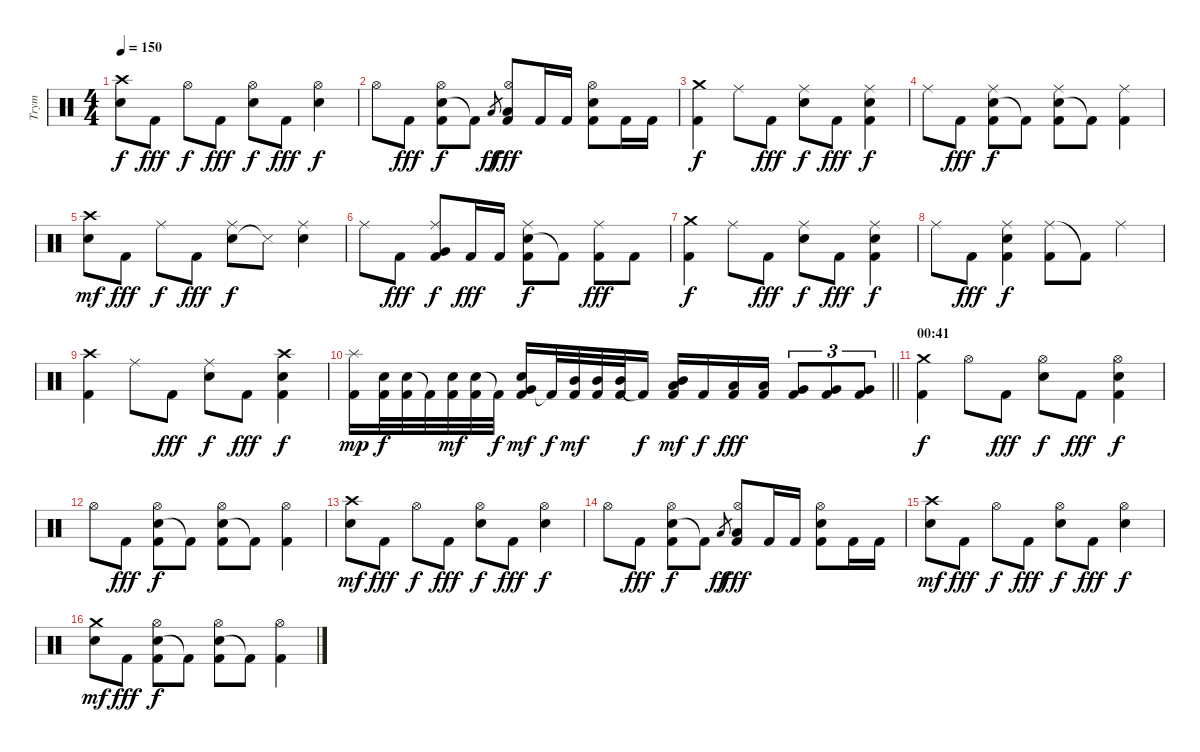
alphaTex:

\track ("Trym" "Trym") {instrument percussion}
\staff {score}
\articulation defaults
\ts (4 4)
\tempo 150
\clef neutral
\ks c
("Crash high (hit)" "Snare (hit) 2").8{dy f} "Kick (hit) 2".8{dy fff} "Hi-Hat (open)".8{dy f} "Kick (hit) 2".8{dy fff} ("Snare (hit) 2" "Hi-Hat (open)").8{dy f} "Kick (hit) 2".8{dy fff} ("Snare (hit) 2" "Hi-Hat (open)").4{dy f} |
"Hi-Hat (open)".8 "Kick (hit) 2".8{dy fff} ("Snare (hit) 2" "Hi-Hat (open)" "Kick (hit) 2").8{dy f} "Kick (hit) 2"{t}.8 "Low Tom (hit)".8{gr dy ff} ("Low Tom (hit)" "Hi-Hat (open)" "Kick (hit) 2").8{dy fff} "Kick (hit) 2".16 "Kick (hit) 2".16 ("Snare (hit) 2" "Hi-Hat (open)" "Kick (hit) 2").8 "Kick (hit) 2".16 "Kick (hit) 2".16 |
("Crash medium (hit)" "Kick (hit) 2").4{dy f} "Ride (middle)".8 "Kick (hit) 2".8{dy fff} ("Snare (hit) 2" "Ride (middle)").8{dy f} "Kick (hit) 2".8{dy fff} ("Snare (hit) 2" "Ride (middle)" "Kick (hit) 2").4{dy f} |
"Ride (middle)".8 "Kick (hit) 2".8{dy fff} ("Snare (hit) 2" "Ride (middle)" "Kick (hit) 2").8{dy f} "Kick (hit) 2"{t}.8 ("Snare (hit) 2" "Ride (middle)" "Kick (hit) 2").8 "Kick (hit) 2"{t}.8 ("Ride (middle)" "Kick (hit) 2").4 |
("Crash high (hit)" "Snare (hit) 2").8{dy mf} "Kick (hit) 2".8{dy fff} "Ride (middle)".8{dy f} "Kick (hit) 2".8{dy fff} ("Snare (hit) 2" "Ride (middle)").8{dy f} "Metronome (hit)"{t}.8 ("Snare (hit) 2" "Ride (middle)").4 |
"Ride (middle)".8 "Kick (hit) 2".8{dy fff} ("Very Low Tom (hit)" "Ride (middle)" "Kick (hit) 2").8{dy f} "Kick (hit) 2".16{dy fff} "Kick (hit) 2".16 ("Snare (hit) 2" "Ride (middle)" "Kick (hit) 2").8{dy f} "Kick (hit) 2"{t}.8 ("Ride (middle)" "Kick (hit) 2").8{dy fff} "Kick (hit) 2".8 |
("Crash medium (hit)" "Kick (hit) 2").4{dy f} "Ride (middle)".8 "Kick (hit) 2".8{dy fff} ("Snare (hit) 2" "Ride (middle)").8{dy f} "Kick (hit) 2".8{dy fff} ("Snare (hit) 2" "Ride (middle)" "Kick (hit) 2").4{dy f} |
"Ride (middle)".8 "Kick (hit) 2".8{dy fff} ("Snare (hit) 2" "Ride (middle)" "Kick (hit) 2").4{dy f} ("Ride (middle)" "Kick (hit) 2").8 "Kick (hit) 2"{t}.8 "Ride (middle)".4 |
("Crash high (hit)" "Kick (hit) 2").4 "Ride (middle)".8 "Kick (hit) 2".8{dy fff} ("Snare (hit) 2" "Ride (middle)").8{dy f} "Kick (hit) 2".8{dy fff} ("Snare (hit) 2" "Crash high (hit)" "Kick (hit) 2").4{dy f} |
\barLineRight lightlight
("Splash (hit)" "Kick (hit) 2").16{dy mp} ("Snare (hit) 2" "Kick (hit) 2").32{dy f} ("Snare (hit) 2" "Kick (hit) 2").32 "Kick (hit) 2"{t}.32 ("Snare (hit) 2" "Kick (hit) 2").32{dy mf} ("Snare (hit) 2" "Kick (hit) 2").32 "Kick (hit) 2"{t}.32{dy f} ("Very Low Tom (hit)" "Snare (hit) 2" "Kick (hit) 2").16{dy mf} "Kick (hit) 2"{t}.32{dy f} ("Mid Tom (hit)" "Kick (hit) 2").32{dy mf} ("Mid Tom (hit)" "Kick (hit) 2").32 ("Mid Tom (hit)" "Kick (hit) 2").32 "Kick (hit) 2"{t}.16{dy f} ("Low Floor Tom (hit)" "Mid Tom (hit)" "Kick (hit) 2").16{dy mf} "Kick (hit) 2".16{dy f} ("Low Floor Tom (hit)" "Kick (hit) 2").16{dy fff} ("Low Floor Tom (hit)" "Kick (hit) 2").16 ("Very Low Tom (hit)" "Kick (hit) 2").8{tu (3 2)} ("Very Low Tom (hit)" "Kick (hit) 2").8{tu (3 2)} ("Very Low Tom (hit)" "Kick (hit) 2").8{tu (3 2)} |
\section ("" "00:41")
("Crash medium (hit)" "Kick (hit) 2").4{dy f} "Hi-Hat (open)".8 "Kick (hit) 2".8{dy fff} ("Snare (hit) 2" "Hi-Hat (open)").8{dy f} "Kick (hit) 2".8{dy fff} ("Snare (hit) 2" "Hi-Hat (open)" "Kick (hit) 2").4{dy f} |
"Hi-Hat (open)".8 "Kick (hit) 2".8{dy fff} ("Snare (hit) 2" "Hi-Hat (open)" "Kick (hit) 2").8{dy f} "Kick (hit) 2"{t}.8 ("Snare (hit) 2" "Hi-Hat (open)" "Kick (hit) 2").8 "Kick (hit) 2"{t}.8 ("Hi-Hat (open)" "Kick (hit) 2").4 |
("Crash high (hit)" "Snare (hit) 2").8{dy mf} "Kick (hit) 2".8{dy fff} "Hi-Hat (open)".8{dy f} "Kick (hit) 2".8{dy fff} ("Snare (hit) 2" "Hi-Hat (open)").8{dy f} "Kick (hit) 2".8{dy fff} ("Snare (hit) 2" "Hi-Hat (open)").4{dy f} |
"Hi-Hat (open)".8 "Kick (hit) 2".8{dy fff} ("Snare (hit) 2" "Hi-Hat (open)" "Kick (hit) 2").8{dy f} "Kick (hit) 2"{t}.8 "Low Tom (hit)".8{gr dy ff} ("Low Tom (hit)" "Hi-Hat (open)" "Kick (hit) 2").8{dy fff} "Kick (hit) 2".16 "Kick (hit) 2".16 ("Snare (hit) 2" "Hi-Hat (open)" "Kick (hit) 2").8 "Kick (hit) 2".16 "Kick (hit) 2".16 |
("Crash high (hit)" "Snare (hit) 2").8{dy mf} "Kick (hit) 2".8{dy fff} "Hi-Hat (open)".8{dy f} "Kick (hit) 2".8{dy fff} ("Snare (hit) 2" "Hi-Hat (open)").8{dy f} "Kick (hit) 2".8{dy fff} ("Snare (hit) 2" "Hi-Hat (open)").4{dy f} |
("Crash medium (hit)" "Snare (hit) 2").8{dy mf} "Kick (hit) 2".8{dy fff} ("Snare (hit) 2" "Hi-Hat (open)" "Kick (hit) 2").8{dy f} "Kick (hit) 2"{t}.8 ("Snare (hit) 2" "Hi-Hat (open)" "Kick (hit) 2").8 "Kick (hit) 2"{t}.8 ("Hi-Hat (open)" "Kick (hit) 2").4
